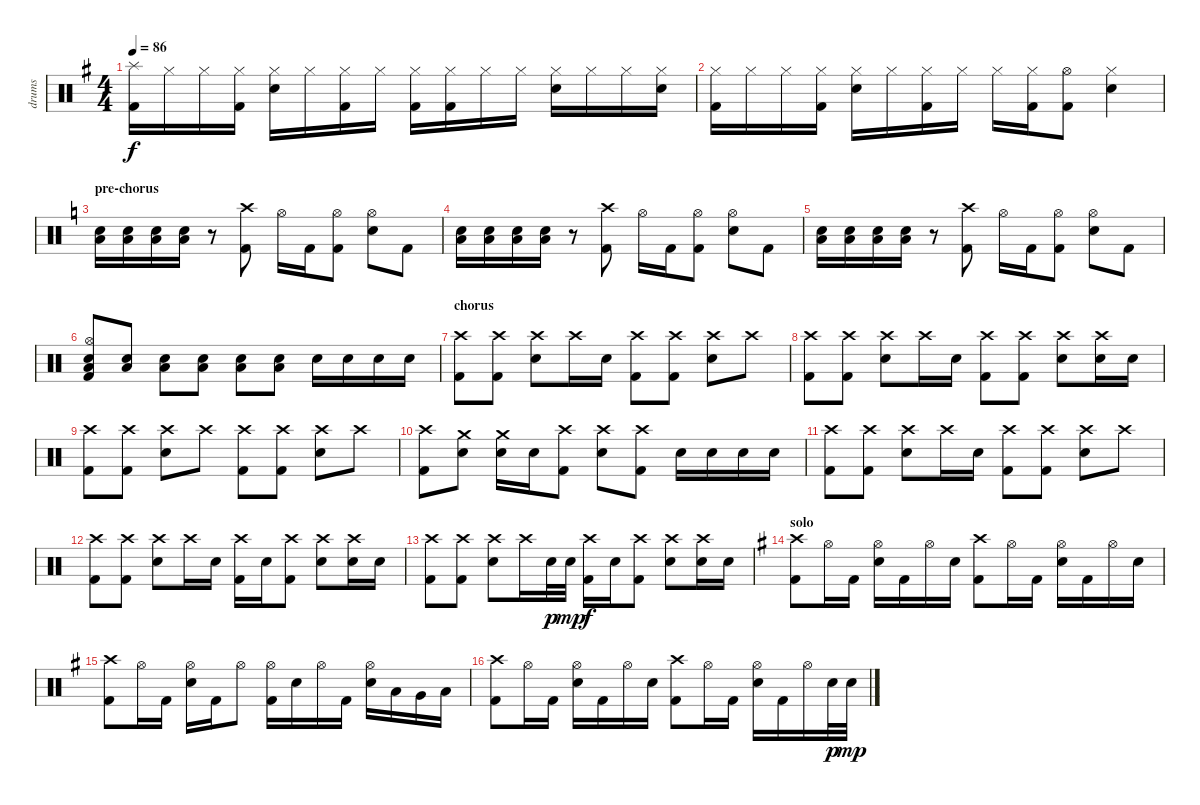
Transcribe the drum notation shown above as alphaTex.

\track ("drums" "drums") {instrument percussion}
\staff {score}
\articulation defaults
\ts (4 4)
\tempo 86
\clef neutral
\ks eminor
("Splash (hit)" "Kick (hit) 2").16{dy f} "Hi-Hat (closed)".16 "Hi-Hat (closed)".16 ("Hi-Hat (closed)" "Kick (hit) 2").16 ("Hi-Hat (closed)" "Electric Snare (hit)").16 "Hi-Hat (closed)".16 ("Hi-Hat (closed)" "Kick (hit) 2").16 "Hi-Hat (closed)".16 ("Hi-Hat (closed)" "Kick (hit) 2").16 ("Hi-Hat (closed)" "Kick (hit) 2").16 "Hi-Hat (closed)".16 "Hi-Hat (closed)".16 ("Hi-Hat (closed)" "Electric Snare (hit)").16 "Hi-Hat (closed)".16 "Hi-Hat (closed)".16 ("Hi-Hat (closed)" "Electric Snare (hit)").16 |
("Hi-Hat (closed)" "Kick (hit) 2").16 "Hi-Hat (closed)".16 "Hi-Hat (closed)".16 ("Hi-Hat (closed)" "Kick (hit) 2").16 ("Hi-Hat (closed)" "Electric Snare (hit)").16 "Hi-Hat (closed)".16 ("Hi-Hat (closed)" "Kick (hit) 2").16 "Hi-Hat (closed)".16 "Hi-Hat (closed)".16 ("Hi-Hat (closed)" "Kick (hit) 2").16 ("Hi-Hat (open)" "Kick (hit) 2").8 ("Hi-Hat (closed)" "Electric Snare (hit)").4 |
\section ("" "pre-chorus")
\ks c
("Electric Snare (hit)" "Low Floor Tom (hit)").16 ("Electric Snare (hit)" "Low Floor Tom (hit)").16 ("Electric Snare (hit)" "Low Floor Tom (hit)").16 ("Electric Snare (hit)" "Low Floor Tom (hit)").16 r.8 ("Crash high (hit)" "Kick (hit) 2").8 "Hi-Hat (open)".16 "Kick (hit) 2".16 ("Hi-Hat (open)" "Kick (hit) 2").8 ("Hi-Hat (open)" "Electric Snare (hit)").8 "Kick (hit) 2".8 |
("Electric Snare (hit)" "Low Floor Tom (hit)").16 ("Electric Snare (hit)" "Low Floor Tom (hit)").16 ("Electric Snare (hit)" "Low Floor Tom (hit)").16 ("Electric Snare (hit)" "Low Floor Tom (hit)").16 r.8 ("Crash high (hit)" "Kick (hit) 2").8 "Hi-Hat (open)".16 "Kick (hit) 2".16 ("Hi-Hat (open)" "Kick (hit) 2").8 ("Hi-Hat (open)" "Electric Snare (hit)").8 "Kick (hit) 2".8 |
("Electric Snare (hit)" "Low Floor Tom (hit)").16 ("Electric Snare (hit)" "Low Floor Tom (hit)").16 ("Electric Snare (hit)" "Low Floor Tom (hit)").16 ("Electric Snare (hit)" "Low Floor Tom (hit)").16 r.8 ("Crash high (hit)" "Kick (hit) 2").8 "Hi-Hat (open)".16 "Kick (hit) 2".16 ("Hi-Hat (open)" "Kick (hit) 2").8 ("Hi-Hat (open)" "Electric Snare (hit)").8 "Kick (hit) 2".8 |
("Hi-Hat (open)" "Electric Snare (hit)" "Low Floor Tom (hit)" "Kick (hit) 2").8 ("Electric Snare (hit)" "Low Floor Tom (hit)").8 ("Electric Snare (hit)" "Low Floor Tom (hit)").8 ("Electric Snare (hit)" "Low Floor Tom (hit)").8 ("Electric Snare (hit)" "Low Floor Tom (hit)").8 ("Electric Snare (hit)" "Low Floor Tom (hit)").8 "Electric Snare (hit)".16 "Electric Snare (hit)".16 "Electric Snare (hit)".16 "Electric Snare (hit)".16 |
\section ("" "chorus")
("Crash high (hit)" "Kick (hit) 2").8 ("Crash high (hit)" "Kick (hit) 2").8 ("Crash high (hit)" "Electric Snare (hit)").8 "Crash high (hit)".16 "Electric Snare (hit)".16 ("Crash high (hit)" "Kick (hit) 2").8 ("Crash high (hit)" "Kick (hit) 2").8 ("Crash high (hit)" "Electric Snare (hit)").8 "Crash high (hit)".8 |
("Crash high (hit)" "Kick (hit) 2").8 ("Crash high (hit)" "Kick (hit) 2").8 ("Crash high (hit)" "Electric Snare (hit)").8 "Crash high (hit)".16 "Electric Snare (hit)".16 ("Crash high (hit)" "Kick (hit) 2").8 ("Crash high (hit)" "Kick (hit) 2").8 ("Crash high (hit)" "Electric Snare (hit)").8 ("Crash high (hit)" "Electric Snare (hit)").16 "Electric Snare (hit)".16 |
("Crash high (hit)" "Kick (hit) 2").8 ("Crash high (hit)" "Kick (hit) 2").8 ("Crash high (hit)" "Electric Snare (hit)").8 "Crash high (hit)".8 ("Crash high (hit)" "Kick (hit) 2").8 ("Crash high (hit)" "Kick (hit) 2").8 ("Crash high (hit)" "Electric Snare (hit)").8 "Crash high (hit)".8 |
("Crash high (hit)" "Kick (hit) 2").8 ("Crash medium (hit)" "Electric Snare (hit)").8 ("Crash medium (hit)" "Electric Snare (hit)").16 "Electric Snare (hit)".16 ("Crash high (hit)" "Kick (hit) 2").8 ("Crash high (hit)" "Electric Snare (hit)").8 ("Crash high (hit)" "Kick (hit) 2").8 "Electric Snare (hit)".16 "Electric Snare (hit)".16 "Electric Snare (hit)".16 "Electric Snare (hit)".16 |
("Crash high (hit)" "Kick (hit) 2").8 ("Crash high (hit)" "Kick (hit) 2").8 ("Crash high (hit)" "Electric Snare (hit)").8 "Crash high (hit)".16 "Electric Snare (hit)".16 ("Crash high (hit)" "Kick (hit) 2").8 ("Crash high (hit)" "Kick (hit) 2").8 ("Crash high (hit)" "Electric Snare (hit)").8 "Crash high (hit)".8 |
("Crash high (hit)" "Kick (hit) 2").8 ("Crash high (hit)" "Kick (hit) 2").8 ("Crash high (hit)" "Electric Snare (hit)").8 "Crash high (hit)".16 "Electric Snare (hit)".16 ("Crash high (hit)" "Kick (hit) 2").16 "Electric Snare (hit)".16 ("Crash high (hit)" "Kick (hit) 2").8 ("Crash high (hit)" "Electric Snare (hit)").8 ("Crash high (hit)" "Electric Snare (hit)").16 "Electric Snare (hit)".16 |
("Crash high (hit)" "Kick (hit) 2").8 ("Crash high (hit)" "Kick (hit) 2").8 ("Crash high (hit)" "Electric Snare (hit)").8 "Crash high (hit)".16 "Electric Snare (hit)".32{dy p} "Electric Snare (hit)".32{dy mp} ("Crash high (hit)" "Kick (hit) 2").16{dy f} "Electric Snare (hit)".16 ("Crash high (hit)" "Kick (hit) 2").8 ("Crash high (hit)" "Electric Snare (hit)").8 ("Crash high (hit)" "Electric Snare (hit)").16 "Electric Snare (hit)".16 |
\section ("" "solo")
\ks eminor
("Crash high (hit)" "Kick (hit) 2").8 "Hi-Hat (open)".16 "Kick (hit) 2".16 ("Hi-Hat (open)" "Electric Snare (hit)").16 "Kick (hit) 2".16 "Hi-Hat (open)".16 "Electric Snare (hit)".16 ("Crash high (hit)" "Kick (hit) 2").8 "Hi-Hat (open)".16 "Kick (hit) 2".16 ("Hi-Hat (open)" "Electric Snare (hit)").16 "Kick (hit) 2".16 "Hi-Hat (open)".16 "Electric Snare (hit)".16 |
("Crash high (hit)" "Kick (hit) 2").8 "Hi-Hat (open)".16 "Kick (hit) 2".16 ("Hi-Hat (open)" "Electric Snare (hit)").16 "Kick (hit) 2".16 "Hi-Hat (open)".8 ("Hi-Hat (open)" "Kick (hit) 2").16 "Electric Snare (hit)".16 "Hi-Hat (open)".16 "Kick (hit) 2".16 ("Hi-Hat (open)" "Electric Snare (hit)").16 "Low Tom (hit)".16 "Very Low Tom (hit)".16 "Low Floor Tom (hit)".16 |
("Crash high (hit)" "Kick (hit) 2").8 "Hi-Hat (open)".16 "Kick (hit) 2".16 ("Hi-Hat (open)" "Electric Snare (hit)").16 "Kick (hit) 2".16 "Hi-Hat (open)".16 "Electric Snare (hit)".16 ("Crash high (hit)" "Kick (hit) 2").8 "Hi-Hat (open)".16 "Kick (hit) 2".16 ("Hi-Hat (open)" "Electric Snare (hit)").16 "Kick (hit) 2".16 "Hi-Hat (open)".16 "Electric Snare (hit)".32{dy p} "Electric Snare (hit)".32{dy mp}
